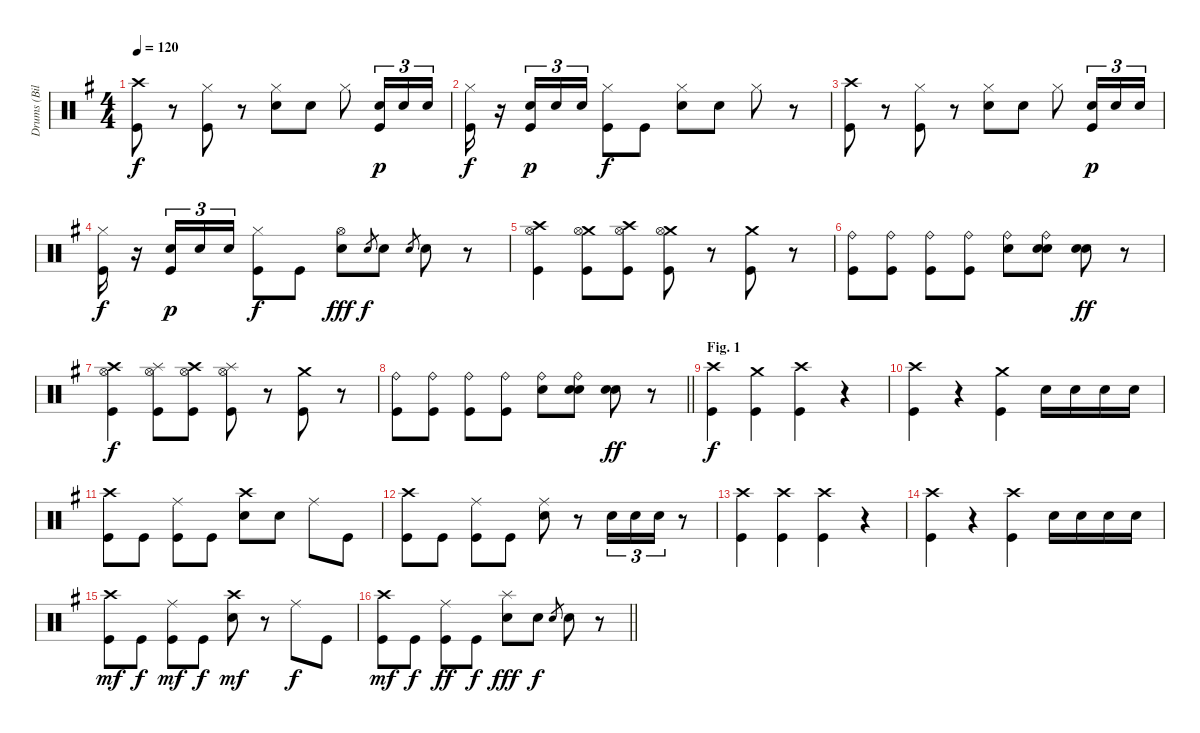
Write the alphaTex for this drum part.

\track ("Drums (Bill Ward)" "Drums (Bil") {instrument percussion}
\staff {score}
\articulation defaults
\ts (4 4)
\tempo 120
\clef neutral
\ks g
("Crash high (hit)" "Kick (hit)").8{dy f} r.8 ("Hi-Hat (closed)" "Kick (hit)").8 r.8 ("Hi-Hat (closed)" "Electric Snare (hit)").8 "Electric Snare (hit)".8 "Hi-Hat (closed)".8 ("Electric Snare (hit)" "Kick (hit)").16{tu (3 2) dy p} "Electric Snare (hit)".16{tu (3 2)} "Electric Snare (hit)".16{tu (3 2)} |
("Hi-Hat (closed)" "Kick (hit)").16{dy f} r.16 ("Electric Snare (hit)" "Kick (hit)").16{tu (3 2) dy p} "Electric Snare (hit)".16{tu (3 2)} "Electric Snare (hit)".16{tu (3 2)} ("Hi-Hat (closed)" "Kick (hit)").8{dy f} "Kick (hit)".8 ("Hi-Hat (closed)" "Electric Snare (hit)").8 "Electric Snare (hit)".8 "Hi-Hat (closed)".8 r.8 |
("Crash high (hit)" "Kick (hit)").8 r.8 ("Hi-Hat (closed)" "Kick (hit)").8 r.8 ("Hi-Hat (closed)" "Electric Snare (hit)").8 "Electric Snare (hit)".8 "Hi-Hat (closed)".8 ("Electric Snare (hit)" "Kick (hit)").16{tu (3 2) dy p} "Electric Snare (hit)".16{tu (3 2)} "Electric Snare (hit)".16{tu (3 2)} |
("Hi-Hat (closed)" "Kick (hit)").16{dy f} r.16 ("Electric Snare (hit)" "Kick (hit)").16{tu (3 2) dy p} "Electric Snare (hit)".16{tu (3 2)} "Electric Snare (hit)".16{tu (3 2)} ("Hi-Hat (closed)" "Kick (hit)").8{dy f} "Kick (hit)".8 ("Hi-Hat (open)" "Electric Snare (hit)").8{dy fff} "Electric Snare (hit)".8{gr dy f} "Electric Snare (hit)".8 "Electric Snare (hit)".8{gr} "Electric Snare (hit)".8 r.8 |
("Crash high (hit)" "Hi-Hat (open)" "Kick (hit)").4 ("Crash medium (hit)" "Hi-Hat (open)" "Kick (hit)").8 ("Crash high (hit)" "Hi-Hat (open)" "Kick (hit)").8 ("Crash medium (hit)" "Hi-Hat (open)" "Kick (hit)").8 r.8 ("Crash medium (hit)" "Kick (hit)").8 r.8 |
("Ride (bell)" "Kick (hit)").8 ("Ride (bell)" "Kick (hit)").8 ("Ride (bell)" "Kick (hit)").8 ("Ride (bell)" "Kick (hit)").8 ("Ride (bell)" "Electric Snare (hit)").8 ("Ride (bell)" "Electric Snare (hit)" "Electric Snare (hit)").8 ("Electric Snare (hit)" "Electric Snare (hit)").8{dy ff} r.8 |
("Crash high (hit)" "Hi-Hat (open)" "Kick (hit)").4{dy f} ("Splash (hit)" "Hi-Hat (open)" "Kick (hit)").8 ("Crash high (hit)" "Hi-Hat (open)" "Kick (hit)").8 ("Splash (hit)" "Hi-Hat (open)" "Kick (hit)").8 r.8 ("Crash medium (hit)" "Kick (hit)").8 r.8 |
\barLineRight lightlight
("Ride (bell)" "Kick (hit)").8 ("Ride (bell)" "Kick (hit)").8 ("Ride (bell)" "Kick (hit)").8 ("Ride (bell)" "Kick (hit)").8 ("Ride (bell)" "Electric Snare (hit)").8 ("Ride (bell)" "Electric Snare (hit)" "Electric Snare (hit)").8 ("Electric Snare (hit)" "Electric Snare (hit)").8{dy ff} r.8 |
\section ("" "Fig. 1")
("Crash high (hit)" "Kick (hit)").4{dy f} ("Crash medium (hit)" "Kick (hit)").4 ("Crash high (hit)" "Kick (hit)").4 r.4 |
("Crash high (hit)" "Kick (hit)").4 r.4 ("Crash medium (hit)" "Kick (hit)").4 "Electric Snare (hit)".16 "Electric Snare (hit)".16 "Electric Snare (hit)".16 "Electric Snare (hit)".16 |
("Crash high (hit)" "Kick (hit)").8 "Kick (hit)".8 ("Ride (middle)" "Kick (hit)").8 "Kick (hit)".8 ("Crash high (hit)" "Electric Snare (hit)").8 "Electric Snare (hit)".8 "Ride (middle)".8 "Kick (hit)".8 |
("Crash high (hit)" "Kick (hit)").8 "Kick (hit)".8 ("Ride (middle)" "Kick (hit)").8 "Kick (hit)".8 ("Ride (middle)" "Electric Snare (hit)").8 r.8 "Electric Snare (hit)".16{tu (3 2)} "Electric Snare (hit)".16{tu (3 2)} "Electric Snare (hit)".16{tu (3 2)} r.8 |
("Crash high (hit)" "Kick (hit)").4 ("Crash high (hit)" "Kick (hit)").4 ("Crash high (hit)" "Kick (hit)").4 r.4 |
("Crash high (hit)" "Kick (hit)").4 r.4 ("Crash high (hit)" "Kick (hit)").4 "Electric Snare (hit)".16 "Electric Snare (hit)".16 "Electric Snare (hit)".16 "Electric Snare (hit)".16 |
("Crash high (hit)" "Kick (hit)").8{dy mf} "Kick (hit)".8{dy f} ("Ride (middle)" "Kick (hit)").8{dy mf} "Kick (hit)".8{dy f} ("Crash high (hit)" "Electric Snare (hit)").8{dy mf} r.8 "Ride (middle)".8{dy f} "Kick (hit)".8 |
\barLineRight lightlight
("Crash high (hit)" "Kick (hit)").8{dy mf} "Kick (hit)".8{dy f} ("Ride (middle)" "Kick (hit)").8{dy ff} "Kick (hit)".8{dy f} ("Splash (hit)" "Electric Snare (hit)").8{dy fff} "Electric Snare (hit)".8{dy f} "Electric Snare (hit)".8{gr} "Electric Snare (hit)".8 r.8
